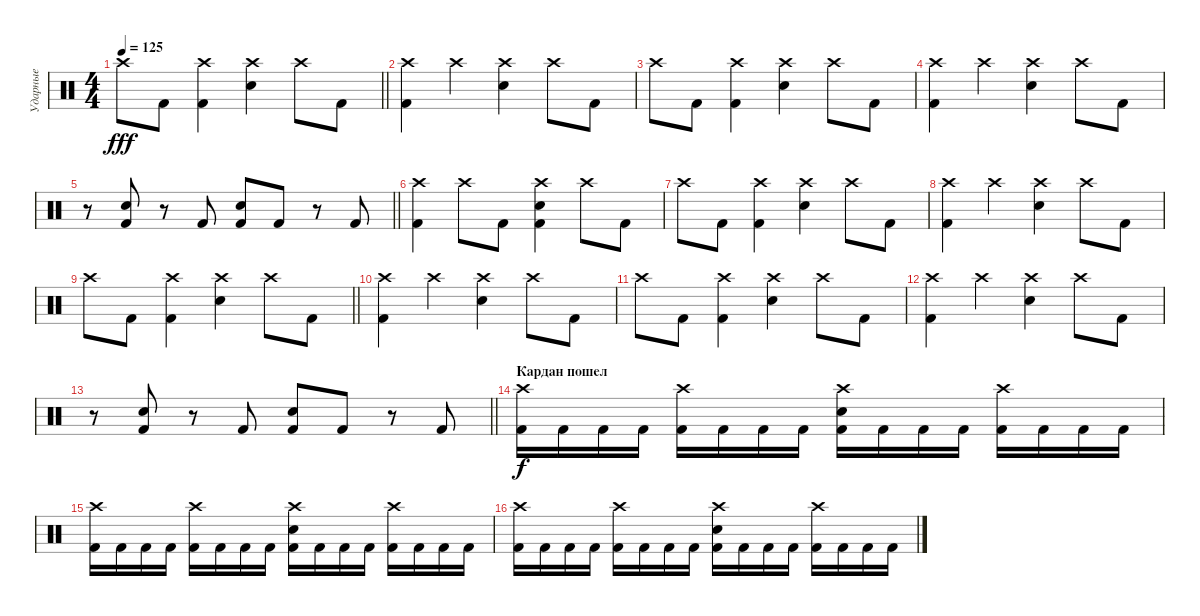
\track ("Ударные" "Ударные") {instrument percussion}
\staff {score}
\articulation defaults
\ts (4 4)
\tempo 125
\clef neutral
\barLineRight lightlight
\ks c "Crash high (hit)".8{dy fff} "Kick (hit) 2".8
("Crash high (hit)" "Kick (hit) 2").4 ("Crash high (hit)" "Snare (hit) 2").4 "Crash high (hit)".8 "Kick (hit) 2".8 |
("Crash high (hit)" "Kick (hit) 2").4 "Crash high (hit)".4 ("Crash high (hit)" "Snare (hit) 2").4 "Crash high (hit)".8 "Kick (hit) 2".8 |
"Crash high (hit)".8 "Kick (hit) 2".8 ("Crash high (hit)" "Kick (hit) 2").4 ("Crash high (hit)" "Snare (hit) 2").4 "Crash high (hit)".8 "Kick (hit) 2".8 |
("Crash high (hit)" "Kick (hit) 2").4 "Crash high (hit)".4 ("Crash high (hit)" "Snare (hit) 2").4 "Crash high (hit)".8 "Kick (hit) 2".8 |
\barLineRight lightlight
r.8 ("Snare (hit) 2" "Kick (hit) 2").8 r.8 "Kick (hit) 2".8 ("Snare (hit) 2" "Kick (hit) 2").8 "Kick (hit) 2".8 r.8 "Kick (hit) 2".8 |
("Crash high (hit)" "Kick (hit) 2").4 "Crash high (hit)".8 "Kick (hit) 2".8 ("Crash high (hit)" "Snare (hit) 2" "Kick (hit) 2").4 "Crash high (hit)".8 "Kick (hit) 2".8 |
"Crash high (hit)".8 "Kick (hit) 2".8 ("Crash high (hit)" "Kick (hit) 2").4 ("Crash high (hit)" "Snare (hit) 2").4 "Crash high (hit)".8 "Kick (hit) 2".8 |
("Crash high (hit)" "Kick (hit) 2").4 "Crash high (hit)".4 ("Crash high (hit)" "Snare (hit) 2").4 "Crash high (hit)".8 "Kick (hit) 2".8 |
\barLineRight lightlight "Crash high (hit)".8 "Kick (hit) 2".8
("Crash high (hit)" "Kick (hit) 2").4 ("Crash high (hit)" "Snare (hit) 2").4 "Crash high (hit)".8 "Kick (hit) 2".8 |
("Crash high (hit)" "Kick (hit) 2").4 "Crash high (hit)".4 ("Crash high (hit)" "Snare (hit) 2").4 "Crash high (hit)".8 "Kick (hit) 2".8 |
"Crash high (hit)".8 "Kick (hit) 2".8 ("Crash high (hit)" "Kick (hit) 2").4 ("Crash high (hit)" "Snare (hit) 2").4 "Crash high (hit)".8 "Kick (hit) 2".8 |
("Crash high (hit)" "Kick (hit) 2").4 "Crash high (hit)".4 ("Crash high (hit)" "Snare (hit) 2").4 "Crash high (hit)".8 "Kick (hit) 2".8 |
\barLineRight lightlight
r.8 ("Snare (hit) 2" "Kick (hit) 2").8 r.8 "Kick (hit) 2".8 ("Snare (hit) 2" "Kick (hit) 2").8 "Kick (hit) 2".8 r.8 "Kick (hit) 2".8 |
\section ("" "Кардан пошел")
("Crash high (hit)" "Kick (hit) 2").16{dy f} "Kick (hit) 2".16 "Kick (hit) 2".16 "Kick (hit) 2".16 ("Crash high (hit)" "Kick (hit) 2").16 "Kick (hit) 2".16 "Kick (hit) 2".16 "Kick (hit) 2".16 ("Crash high (hit)" "Snare (hit) 2" "Kick (hit) 2").16 "Kick (hit) 2".16 "Kick (hit) 2".16 "Kick (hit) 2".16 ("Crash high (hit)" "Kick (hit) 2").16 "Kick (hit) 2".16 "Kick (hit) 2".16 "Kick (hit) 2".16 |
("Crash high (hit)" "Kick (hit) 2").16 "Kick (hit) 2".16 "Kick (hit) 2".16 "Kick (hit) 2".16 ("Crash high (hit)" "Kick (hit) 2").16 "Kick (hit) 2".16 "Kick (hit) 2".16 "Kick (hit) 2".16 ("Crash high (hit)" "Snare (hit) 2" "Kick (hit) 2").16 "Kick (hit) 2".16 "Kick (hit) 2".16 "Kick (hit) 2".16 ("Crash high (hit)" "Kick (hit) 2").16 "Kick (hit) 2".16 "Kick (hit) 2".16 "Kick (hit) 2".16 |
("Crash high (hit)" "Kick (hit) 2").16 "Kick (hit) 2".16 "Kick (hit) 2".16 "Kick (hit) 2".16 ("Crash high (hit)" "Kick (hit) 2").16 "Kick (hit) 2".16 "Kick (hit) 2".16 "Kick (hit) 2".16 ("Crash high (hit)" "Snare (hit) 2" "Kick (hit) 2").16 "Kick (hit) 2".16 "Kick (hit) 2".16 "Kick (hit) 2".16 ("Crash high (hit)" "Kick (hit) 2").16 "Kick (hit) 2".16 "Kick (hit) 2".16 "Kick (hit) 2".16
